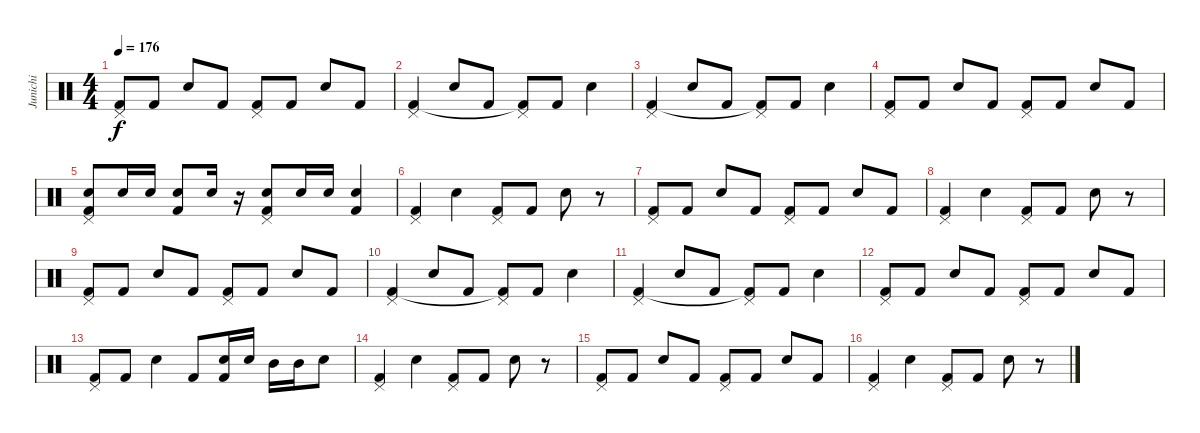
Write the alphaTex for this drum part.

\track ("Junichi" "Junichi") {instrument percussion}
\staff {score}
\articulation defaults
\ts (4 4)
\tempo 176
\clef neutral
\ks c
("Pedal Hi-Hat (hit)" "Kick (hit) 2").8{dy f} "Kick (hit) 2".8 "Snare (hit) 2".8 "Kick (hit) 2".8 ("Pedal Hi-Hat (hit)" "Kick (hit) 2").8 "Kick (hit) 2".8 "Snare (hit) 2".8 "Kick (hit) 2".8 |
("Pedal Hi-Hat (hit)" "Kick (hit) 2").4 "Snare (hit) 2".8 "Kick (hit) 2".8 ("Pedal Hi-Hat (hit)" "Kick (hit) 2"{t}).8 "Kick (hit) 2".8 "Snare (hit) 2".4 |
("Pedal Hi-Hat (hit)" "Kick (hit) 2").4 "Snare (hit) 2".8 "Kick (hit) 2".8 ("Pedal Hi-Hat (hit)" "Kick (hit) 2"{t}).8 "Kick (hit) 2".8 "Snare (hit) 2".4 |
("Pedal Hi-Hat (hit)" "Kick (hit) 2").8 "Kick (hit) 2".8 "Snare (hit) 2".8 "Kick (hit) 2".8 ("Pedal Hi-Hat (hit)" "Kick (hit) 2").8 "Kick (hit) 2".8 "Snare (hit) 2".8 "Kick (hit) 2".8 |
("Pedal Hi-Hat (hit)" "Snare (hit) 2" "Kick (hit) 2").8 "Snare (hit) 2".16 "Snare (hit) 2".16 ("Snare (hit) 2" "Kick (hit) 2").8 "Snare (hit) 2".16 r.16 ("Pedal Hi-Hat (hit)" "Snare (hit) 2" "Kick (hit) 2").8 "Snare (hit) 2".16 "Snare (hit) 2".16 ("Snare (hit) 2" "Kick (hit) 2").4 |
("Pedal Hi-Hat (hit)" "Kick (hit) 2").4 "Snare (hit) 2".4 ("Pedal Hi-Hat (hit)" "Kick (hit) 2").8 "Kick (hit) 2".8 "Snare (hit) 2".8 r.8 |
("Pedal Hi-Hat (hit)" "Kick (hit) 2").8 "Kick (hit) 2".8 "Snare (hit) 2".8 "Kick (hit) 2".8 ("Pedal Hi-Hat (hit)" "Kick (hit) 2").8 "Kick (hit) 2".8 "Snare (hit) 2".8 "Kick (hit) 2".8 |
("Pedal Hi-Hat (hit)" "Kick (hit) 2").4 "Snare (hit) 2".4 ("Pedal Hi-Hat (hit)" "Kick (hit) 2").8 "Kick (hit) 2".8 "Snare (hit) 2".8 r.8 |
("Pedal Hi-Hat (hit)" "Kick (hit) 2").8 "Kick (hit) 2".8 "Snare (hit) 2".8 "Kick (hit) 2".8 ("Pedal Hi-Hat (hit)" "Kick (hit) 2").8 "Kick (hit) 2".8 "Snare (hit) 2".8 "Kick (hit) 2".8 |
("Pedal Hi-Hat (hit)" "Kick (hit) 2").4 "Snare (hit) 2".8 "Kick (hit) 2".8 ("Pedal Hi-Hat (hit)" "Kick (hit) 2"{t}).8 "Kick (hit) 2".8 "Snare (hit) 2".4 |
("Pedal Hi-Hat (hit)" "Kick (hit) 2").4 "Snare (hit) 2".8 "Kick (hit) 2".8 ("Pedal Hi-Hat (hit)" "Kick (hit) 2"{t}).8 "Kick (hit) 2".8 "Snare (hit) 2".4 |
("Pedal Hi-Hat (hit)" "Kick (hit) 2").8 "Kick (hit) 2".8 "Snare (hit) 2".8 "Kick (hit) 2".8 ("Pedal Hi-Hat (hit)" "Kick (hit) 2").8 "Kick (hit) 2".8 "Snare (hit) 2".8 "Kick (hit) 2".8 |
("Pedal Hi-Hat (hit)" "Kick (hit) 2").8 "Kick (hit) 2".8 "Snare (hit) 2".4 "Kick (hit) 2".8 ("Snare (hit) 2" "Kick (hit) 2").16 "Snare (hit) 2".16 "Mid Tom (hit)".16 "Mid Tom (hit)".16 "Snare (hit) 2".8 |
("Pedal Hi-Hat (hit)" "Kick (hit) 2").4 "Snare (hit) 2".4 ("Pedal Hi-Hat (hit)" "Kick (hit) 2").8 "Kick (hit) 2".8 "Snare (hit) 2".8 r.8 |
("Pedal Hi-Hat (hit)" "Kick (hit) 2").8 "Kick (hit) 2".8 "Snare (hit) 2".8 "Kick (hit) 2".8 ("Pedal Hi-Hat (hit)" "Kick (hit) 2").8 "Kick (hit) 2".8 "Snare (hit) 2".8 "Kick (hit) 2".8 |
("Pedal Hi-Hat (hit)" "Kick (hit) 2").4 "Snare (hit) 2".4 ("Pedal Hi-Hat (hit)" "Kick (hit) 2").8 "Kick (hit) 2".8 "Snare (hit) 2".8 r.8
